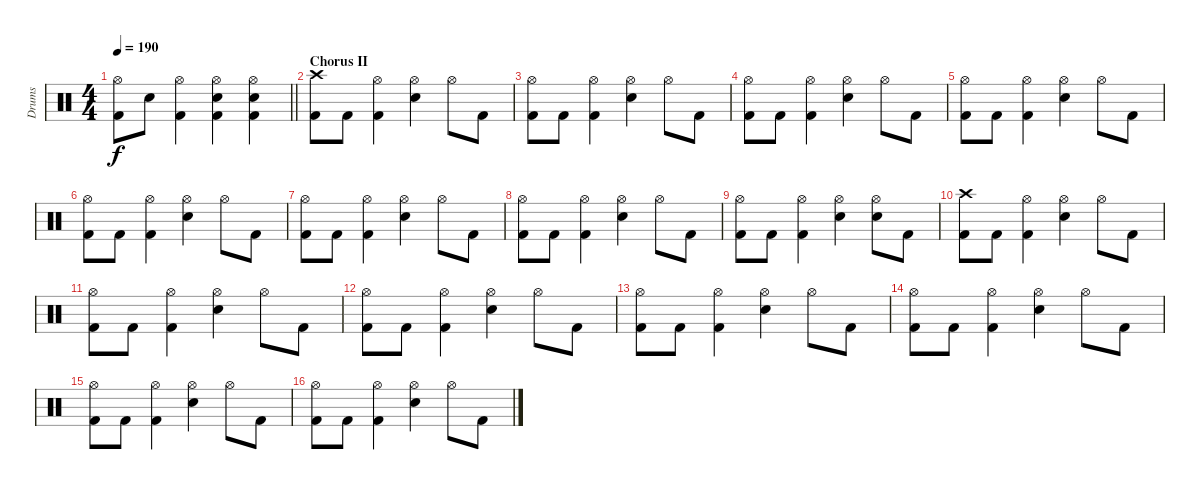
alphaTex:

\track ("Drums" "Drums") {instrument percussion}
\staff {score}
\articulation defaults
\ts (4 4)
\tempo 190
\clef neutral
\barLineRight lightlight
\ks c
("Hi-Hat (open)" "Kick (hit) 2").8{dy f} "Snare (hit) 2".8 ("Hi-Hat (open)" "Kick (hit) 2").4 ("Hi-Hat (open)" "Snare (hit) 2" "Kick (hit) 2").4 ("Hi-Hat (open)" "Snare (hit) 2" "Kick (hit) 2").4 |
\section ("" "Chorus II")
("Crash high (hit)" "Kick (hit) 2").8 "Kick (hit) 2".8 ("Hi-Hat (open)" "Kick (hit) 2").4 ("Hi-Hat (open)" "Snare (hit) 2").4 "Hi-Hat (open)".8 "Kick (hit) 2".8 |
("Hi-Hat (open)" "Kick (hit) 2").8 "Kick (hit) 2".8 ("Hi-Hat (open)" "Kick (hit) 2").4 ("Hi-Hat (open)" "Snare (hit) 2").4 "Hi-Hat (open)".8 "Kick (hit) 2".8 |
("Hi-Hat (open)" "Kick (hit) 2").8 "Kick (hit) 2".8 ("Hi-Hat (open)" "Kick (hit) 2").4 ("Hi-Hat (open)" "Snare (hit) 2").4 "Hi-Hat (open)".8 "Kick (hit) 2".8 |
("Hi-Hat (open)" "Kick (hit) 2").8 "Kick (hit) 2".8 ("Hi-Hat (open)" "Kick (hit) 2").4 ("Hi-Hat (open)" "Snare (hit) 2").4 "Hi-Hat (open)".8 "Kick (hit) 2".8 |
("Hi-Hat (open)" "Kick (hit) 2").8 "Kick (hit) 2".8 ("Hi-Hat (open)" "Kick (hit) 2").4 ("Hi-Hat (open)" "Snare (hit) 2").4 "Hi-Hat (open)".8 "Kick (hit) 2".8 |
("Hi-Hat (open)" "Kick (hit) 2").8 "Kick (hit) 2".8 ("Hi-Hat (open)" "Kick (hit) 2").4 ("Hi-Hat (open)" "Snare (hit) 2").4 "Hi-Hat (open)".8 "Kick (hit) 2".8 |
("Hi-Hat (open)" "Kick (hit) 2").8 "Kick (hit) 2".8 ("Hi-Hat (open)" "Kick (hit) 2").4 ("Hi-Hat (open)" "Snare (hit) 2").4 "Hi-Hat (open)".8 "Kick (hit) 2".8 |
("Hi-Hat (open)" "Kick (hit) 2").8 "Kick (hit) 2".8 ("Hi-Hat (open)" "Kick (hit) 2").4 ("Hi-Hat (open)" "Snare (hit) 2").4 ("Hi-Hat (open)" "Snare (hit) 2").8 "Kick (hit) 2".8 |
("Crash high (hit)" "Kick (hit) 2").8 "Kick (hit) 2".8 ("Hi-Hat (open)" "Kick (hit) 2").4 ("Hi-Hat (open)" "Snare (hit) 2").4 "Hi-Hat (open)".8 "Kick (hit) 2".8 |
("Hi-Hat (open)" "Kick (hit) 2").8 "Kick (hit) 2".8 ("Hi-Hat (open)" "Kick (hit) 2").4 ("Hi-Hat (open)" "Snare (hit) 2").4 "Hi-Hat (open)".8 "Kick (hit) 2".8 |
("Hi-Hat (open)" "Kick (hit) 2").8 "Kick (hit) 2".8 ("Hi-Hat (open)" "Kick (hit) 2").4 ("Hi-Hat (open)" "Snare (hit) 2").4 "Hi-Hat (open)".8 "Kick (hit) 2".8 |
("Hi-Hat (open)" "Kick (hit) 2").8 "Kick (hit) 2".8 ("Hi-Hat (open)" "Kick (hit) 2").4 ("Hi-Hat (open)" "Snare (hit) 2").4 "Hi-Hat (open)".8 "Kick (hit) 2".8 |
("Hi-Hat (open)" "Kick (hit) 2").8 "Kick (hit) 2".8 ("Hi-Hat (open)" "Kick (hit) 2").4 ("Hi-Hat (open)" "Snare (hit) 2").4 "Hi-Hat (open)".8 "Kick (hit) 2".8 |
("Hi-Hat (open)" "Kick (hit) 2").8 "Kick (hit) 2".8 ("Hi-Hat (open)" "Kick (hit) 2").4 ("Hi-Hat (open)" "Snare (hit) 2").4 "Hi-Hat (open)".8 "Kick (hit) 2".8 |
("Hi-Hat (open)" "Kick (hit) 2").8 "Kick (hit) 2".8 ("Hi-Hat (open)" "Kick (hit) 2").4 ("Hi-Hat (open)" "Snare (hit) 2").4 "Hi-Hat (open)".8 "Kick (hit) 2".8
